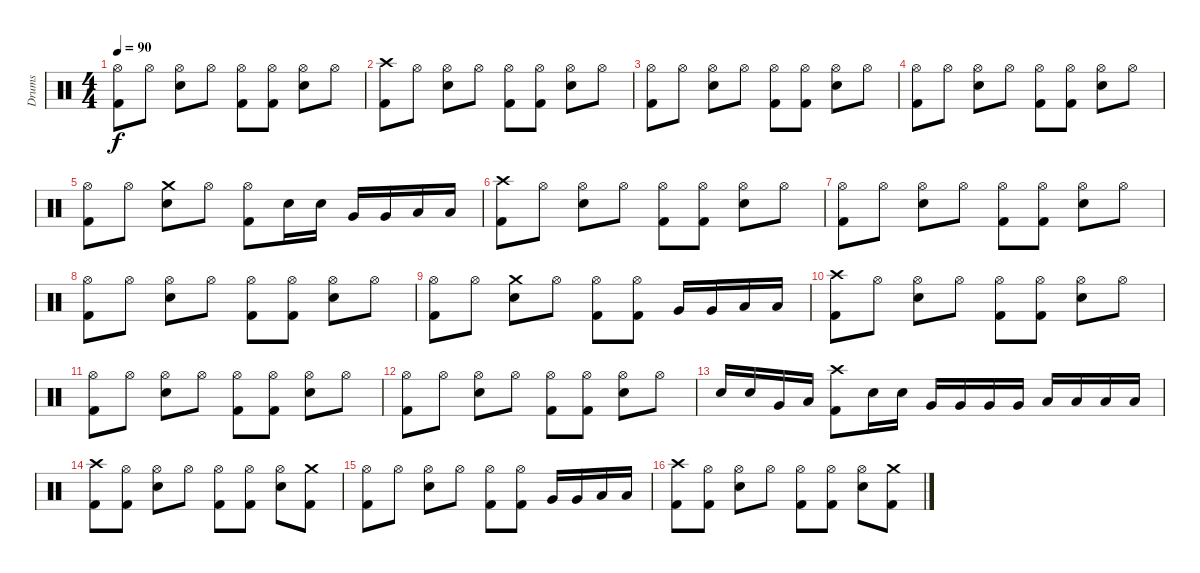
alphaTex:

\track ("Drums" "Drums") {instrument percussion}
\staff {score}
\articulation defaults
\ts (4 4)
\tempo 90
\clef neutral
\ks c
("Hi-Hat (open)" "Kick (hit) 2").8{dy f} "Hi-Hat (open)".8 ("Hi-Hat (open)" "Electric Snare (hit)").8 "Hi-Hat (open)".8 ("Hi-Hat (open)" "Kick (hit) 2").8 ("Hi-Hat (open)" "Kick (hit) 2").8 ("Hi-Hat (open)" "Electric Snare (hit)").8 "Hi-Hat (open)".8 |
("Crash high (hit)" "Kick (hit) 2").8 "Hi-Hat (open)".8 ("Hi-Hat (open)" "Electric Snare (hit)").8 "Hi-Hat (open)".8 ("Hi-Hat (open)" "Kick (hit) 2").8 ("Hi-Hat (open)" "Kick (hit) 2").8 ("Hi-Hat (open)" "Electric Snare (hit)").8 "Hi-Hat (open)".8 |
("Hi-Hat (open)" "Kick (hit) 2").8 "Hi-Hat (open)".8 ("Hi-Hat (open)" "Electric Snare (hit)").8 "Hi-Hat (open)".8 ("Hi-Hat (open)" "Kick (hit) 2").8 ("Hi-Hat (open)" "Kick (hit) 2").8 ("Hi-Hat (open)" "Electric Snare (hit)").8 "Hi-Hat (open)".8 |
("Hi-Hat (open)" "Kick (hit) 2").8 "Hi-Hat (open)".8 ("Hi-Hat (open)" "Electric Snare (hit)").8 "Hi-Hat (open)".8 ("Hi-Hat (open)" "Kick (hit) 2").8 ("Hi-Hat (open)" "Kick (hit) 2").8 ("Hi-Hat (open)" "Electric Snare (hit)").8 "Hi-Hat (open)".8 |
("Hi-Hat (open)" "Kick (hit) 2").8 "Hi-Hat (open)".8 ("Crash medium (hit)" "Electric Snare (hit)").8 "Hi-Hat (open)".8 ("Hi-Hat (open)" "Kick (hit) 2").8 "Electric Snare (hit)".16 "Electric Snare (hit)".16 "Very Low Tom (hit)".16 "Very Low Tom (hit)".16 "Low Floor Tom (hit)".16 "Low Floor Tom (hit)".16 |
("Crash high (hit)" "Kick (hit) 2").8 "Hi-Hat (open)".8 ("Hi-Hat (open)" "Electric Snare (hit)").8 "Hi-Hat (open)".8 ("Hi-Hat (open)" "Kick (hit) 2").8 ("Hi-Hat (open)" "Kick (hit) 2").8 ("Hi-Hat (open)" "Electric Snare (hit)").8 "Hi-Hat (open)".8 |
("Hi-Hat (open)" "Kick (hit) 2").8 "Hi-Hat (open)".8 ("Hi-Hat (open)" "Electric Snare (hit)").8 "Hi-Hat (open)".8 ("Hi-Hat (open)" "Kick (hit) 2").8 ("Hi-Hat (open)" "Kick (hit) 2").8 ("Hi-Hat (open)" "Electric Snare (hit)").8 "Hi-Hat (open)".8 |
("Hi-Hat (open)" "Kick (hit) 2").8 "Hi-Hat (open)".8 ("Hi-Hat (open)" "Electric Snare (hit)").8 "Hi-Hat (open)".8 ("Hi-Hat (open)" "Kick (hit) 2").8 ("Hi-Hat (open)" "Kick (hit) 2").8 ("Hi-Hat (open)" "Electric Snare (hit)").8 "Hi-Hat (open)".8 |
("Hi-Hat (open)" "Kick (hit) 2").8 "Hi-Hat (open)".8 ("Crash medium (hit)" "Electric Snare (hit)").8 "Hi-Hat (open)".8 ("Hi-Hat (open)" "Kick (hit) 2").8 ("Hi-Hat (open)" "Kick (hit) 2").8 "Very Low Tom (hit)".16 "Very Low Tom (hit)".16 "Low Floor Tom (hit)".16 "Low Floor Tom (hit)".16 |
("Crash high (hit)" "Kick (hit) 2").8 "Hi-Hat (open)".8 ("Hi-Hat (open)" "Electric Snare (hit)").8 "Hi-Hat (open)".8 ("Hi-Hat (open)" "Kick (hit) 2").8 ("Hi-Hat (open)" "Kick (hit) 2").8 ("Hi-Hat (open)" "Electric Snare (hit)").8 "Hi-Hat (open)".8 |
("Hi-Hat (open)" "Kick (hit) 2").8 "Hi-Hat (open)".8 ("Hi-Hat (open)" "Electric Snare (hit)").8 "Hi-Hat (open)".8 ("Hi-Hat (open)" "Kick (hit) 2").8 ("Hi-Hat (open)" "Kick (hit) 2").8 ("Hi-Hat (open)" "Electric Snare (hit)").8 "Hi-Hat (open)".8 |
("Hi-Hat (open)" "Kick (hit) 2").8 "Hi-Hat (open)".8 ("Hi-Hat (open)" "Electric Snare (hit)").8 "Hi-Hat (open)".8 ("Hi-Hat (open)" "Kick (hit) 2").8 ("Hi-Hat (open)" "Kick (hit) 2").8 ("Hi-Hat (open)" "Electric Snare (hit)").8 "Hi-Hat (open)".8 |
"Electric Snare (hit)".16 "Electric Snare (hit)".16 "Very Low Tom (hit)".16 "Low Floor Tom (hit)".16 ("Crash high (hit)" "Kick (hit) 2").8 "Electric Snare (hit)".16 "Electric Snare (hit)".16 "Very Low Tom (hit)".16 "Very Low Tom (hit)".16 "Very Low Tom (hit)".16 "Very Low Tom (hit)".16 "Low Floor Tom (hit)".16 "Low Floor Tom (hit)".16 "Low Floor Tom (hit)".16 "Low Floor Tom (hit)".16 |
("Crash high (hit)" "Kick (hit) 2").8 ("Hi-Hat (open)" "Kick (hit) 2").8 ("Hi-Hat (open)" "Electric Snare (hit)").8 "Hi-Hat (open)".8 ("Hi-Hat (open)" "Kick (hit) 2").8 ("Hi-Hat (open)" "Kick (hit) 2").8 ("Hi-Hat (open)" "Electric Snare (hit)").8 ("Crash medium (hit)" "Kick (hit) 2").8 |
("Hi-Hat (open)" "Kick (hit) 2").8 "Hi-Hat (open)".8 ("Hi-Hat (open)" "Electric Snare (hit)").8 "Hi-Hat (open)".8 ("Hi-Hat (open)" "Kick (hit) 2").8 ("Hi-Hat (open)" "Kick (hit) 2").8 "Very Low Tom (hit)".16 "Very Low Tom (hit)".16 "Low Floor Tom (hit)".16 "Low Floor Tom (hit)".16 |
("Crash high (hit)" "Kick (hit) 2").8 ("Hi-Hat (open)" "Kick (hit) 2").8 ("Hi-Hat (open)" "Electric Snare (hit)").8 "Hi-Hat (open)".8 ("Hi-Hat (open)" "Kick (hit) 2").8 ("Hi-Hat (open)" "Kick (hit) 2").8 ("Hi-Hat (open)" "Electric Snare (hit)").8 ("Crash medium (hit)" "Kick (hit) 2").8
